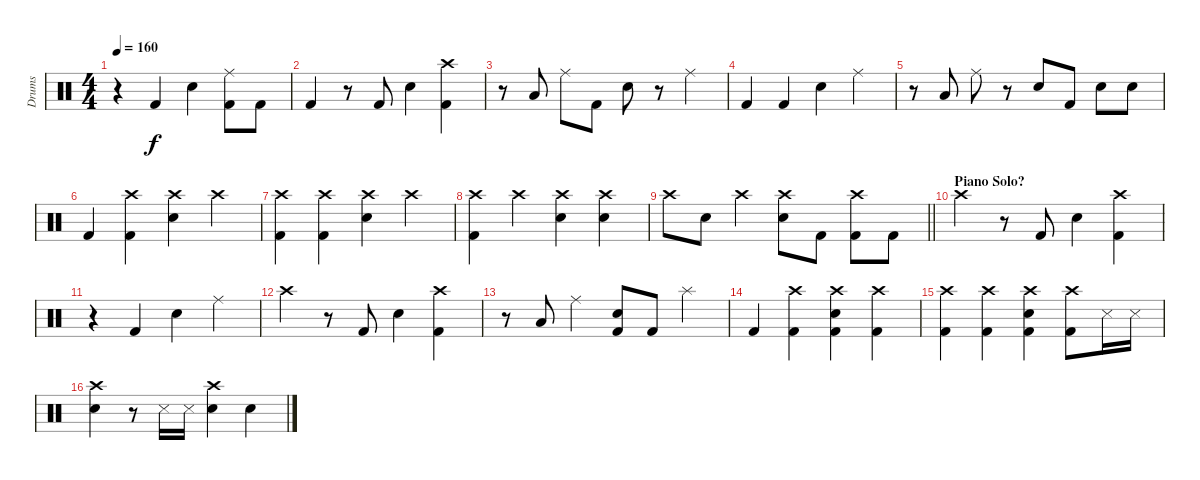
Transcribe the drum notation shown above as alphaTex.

\track ("Drums" "Drums") {instrument percussion}
\staff {score}
\articulation defaults
\ts (4 4)
\tempo 160
\clef neutral
\ks c
r.4{dy f} "Kick (hit) 2".4 "Snare (hit) 2".4 ("Kick (hit) 2" "Ride (middle)").8 "Kick (hit) 2".8 |
"Kick (hit) 2".4 r.8 "Kick (hit) 2".8 "Snare (hit) 2".4 ("Kick (hit) 2" "Crash high (hit)").4 |
r.8 "Low Tom (hit)".8 "Ride (middle)".8 "Kick (hit) 2".8 "Snare (hit) 2".8 r.8 "Ride (middle)".4 |
"Kick (hit) 2".4 "Kick (hit) 2".4 "Snare (hit) 2".4 "Ride (middle)".4 |
r.8 "Low Tom (hit)".8 "Ride (middle)".8 r.8 "Snare (hit) 2".8 "Kick (hit) 2".8 "Snare (hit) 2".8 "Snare (hit) 2".8 |
"Kick (hit) 2".4 ("Kick (hit) 2" "Crash high (hit)").4 ("Crash high (hit)" "Snare (hit) 2").4 "Crash high (hit)".4 |
("Kick (hit) 2" "Crash high (hit)").4 ("Kick (hit) 2" "Crash high (hit)").4 ("Crash high (hit)" "Snare (hit) 2").4 "Crash high (hit)".4 |
("Kick (hit) 2" "Crash high (hit)").4 "Crash high (hit)".4 ("Crash high (hit)" "Snare (hit) 2").4 ("Crash high (hit)" "Snare (hit) 2").4 |
\barLineRight lightlight "Crash high (hit)".8 "Snare (hit) 2".8 "Crash high (hit)".4
("Crash high (hit)" "Snare (hit) 2").8 "Kick (hit) 2".8 ("Kick (hit) 2" "Crash high (hit)").8 "Kick (hit) 2".8 |
\section ("" "Piano Solo?")
"Crash high (hit)".4 r.8 "Kick (hit) 2".8 "Snare (hit) 2".4 ("Kick (hit) 2" "Crash high (hit)").4 |
r.4 "Kick (hit) 2".4 "Snare (hit) 2".4 "Ride (middle)".4 |
"Crash high (hit)".4 r.8 "Kick (hit) 2".8 "Snare (hit) 2".4 ("Kick (hit) 2" "Crash high (hit)").4 |
r.8 "Low Tom (hit)".8 "Ride (middle)".4 ("Kick (hit) 2" "Snare (hit) 2").8 "Kick (hit) 2".8 "Splash (hit)".4 |
"Kick (hit) 2".4 ("Kick (hit) 2" "Crash high (hit)").4 ("Kick (hit) 2" "Crash high (hit)" "Snare (hit) 2").4 ("Kick (hit) 2" "Crash high (hit)").4 |
("Kick (hit) 2" "Crash high (hit)").4 ("Kick (hit) 2" "Crash high (hit)").4 ("Kick (hit) 2" "Crash high (hit)" "Snare (hit) 2").4 ("Kick (hit) 2" "Crash high (hit)").8 "Snare (side stick) 3".16 "Snare (side stick) 3".16 |
("Crash high (hit)" "Snare (hit) 2").4 r.8 "Snare (side stick) 3".16 "Snare (side stick) 3".16 ("Crash high (hit)" "Snare (hit) 2").4 "Snare (hit) 2".4
